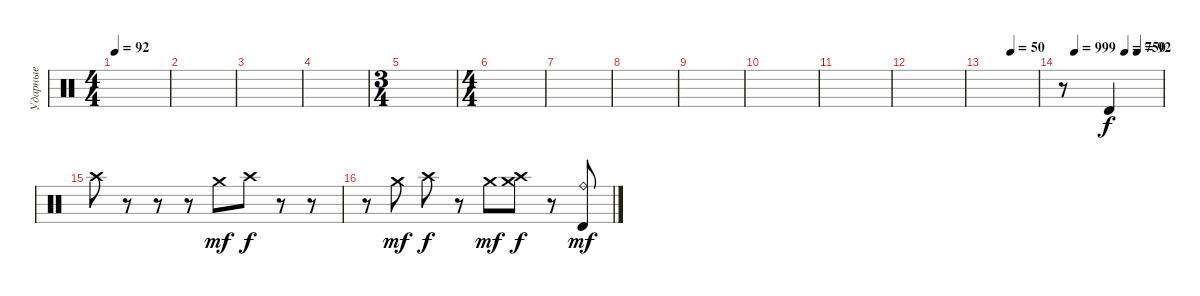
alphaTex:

\track ("Ударные" "Ударные") {instrument percussion}
\staff {score}
\articulation defaults
\ts (4 4)
\tempo 92
\clef neutral
\ks c
|
|
|
|
\ts (3 4)
|
\ts (4 4)
|
|
|
|
|
|
|
\tempo (50 0.5)
|
\tempo (999 0.125)
\tempo (750 0.625)
\tempo (92 0.75)
r.8 "Timbale high (hit)".4 |
"Crash high (hit)".8 r.8 r.8 r.8 "Crash medium (hit)".8{dy mf} "Crash high (hit)".8{dy f} r.8 r.8 |
r.8 "Crash medium (hit)".8{dy mf} "Crash high (hit)".8{dy f} r.8 "Crash medium (hit)".8{dy mf} ("Crash high (hit)" "Crash medium (hit)").8{dy f} r.8 ("Timbale high (hit)" "Ride (bell)").8{dy mf}
